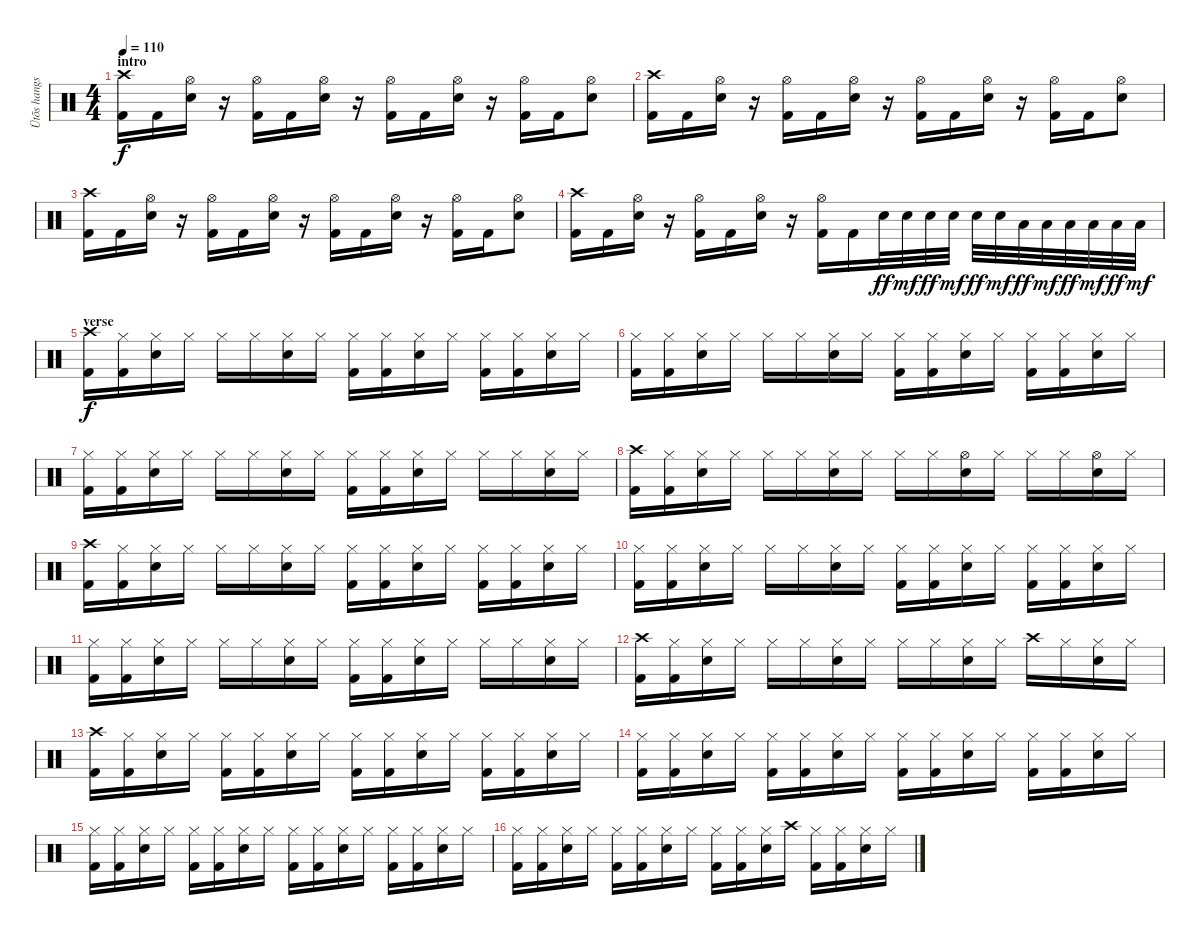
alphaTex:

\track ("Ütõs hangszer" "Ütõs hangs") {instrument percussion}
\staff {score}
\articulation defaults
\ts (4 4)
\section ("" "intro")
\tempo 110
\clef neutral
\ks c
("Crash high (hit)" "Kick (hit) 2").16{dy f} "Kick (hit) 2".16 ("Hi-Hat (open)" "Snare (hit) 2").16 r.16 ("Hi-Hat (open)" "Kick (hit) 2").16 "Kick (hit) 2".16 ("Hi-Hat (open)" "Snare (hit) 2").16 r.16 ("Hi-Hat (open)" "Kick (hit) 2").16 "Kick (hit) 2".16 ("Hi-Hat (open)" "Snare (hit) 2").16 r.16 ("Hi-Hat (open)" "Kick (hit) 2").16 "Kick (hit) 2".16 ("Hi-Hat (open)" "Snare (hit) 2").8 |
("Crash high (hit)" "Kick (hit) 2").16 "Kick (hit) 2".16 ("Hi-Hat (open)" "Snare (hit) 2").16 r.16 ("Hi-Hat (open)" "Kick (hit) 2").16 "Kick (hit) 2".16 ("Hi-Hat (open)" "Snare (hit) 2").16 r.16 ("Hi-Hat (open)" "Kick (hit) 2").16 "Kick (hit) 2".16 ("Hi-Hat (open)" "Snare (hit) 2").16 r.16 ("Hi-Hat (open)" "Kick (hit) 2").16 "Kick (hit) 2".16 ("Hi-Hat (open)" "Snare (hit) 2").8 |
("Crash high (hit)" "Kick (hit) 2").16 "Kick (hit) 2".16 ("Hi-Hat (open)" "Snare (hit) 2").16 r.16 ("Hi-Hat (open)" "Kick (hit) 2").16 "Kick (hit) 2".16 ("Hi-Hat (open)" "Snare (hit) 2").16 r.16 ("Hi-Hat (open)" "Kick (hit) 2").16 "Kick (hit) 2".16 ("Hi-Hat (open)" "Snare (hit) 2").16 r.16 ("Hi-Hat (open)" "Kick (hit) 2").16 "Kick (hit) 2".16 ("Hi-Hat (open)" "Snare (hit) 2").8 |
("Crash high (hit)" "Kick (hit) 2").16 "Kick (hit) 2".16 ("Hi-Hat (open)" "Snare (hit) 2").16 r.16 ("Hi-Hat (open)" "Kick (hit) 2").16 "Kick (hit) 2".16 ("Hi-Hat (open)" "Snare (hit) 2").16 r.16 ("Hi-Hat (open)" "Kick (hit) 2").16 "Kick (hit) 2".16 "Snare (hit) 2".32{dy ff} "Snare (hit) 2".32{dy mf} "Snare (hit) 2".32{dy ff} "Snare (hit) 2".32{dy mf} "Snare (hit) 2".32{dy ff} "Snare (hit) 2".32{dy mf} "Low Tom (hit)".32{dy ff} "Low Tom (hit)".32{dy mf} "Low Tom (hit)".32{dy ff} "Low Tom (hit)".32{dy mf} "Low Tom (hit)".32{dy ff} "Low Tom (hit)".32{dy mf} |
\section ("" "verse")
("Crash high (hit)" "Kick (hit) 2").16{dy f} ("Hi-Hat (closed)" "Kick (hit) 2").16 ("Hi-Hat (closed)" "Snare (hit) 2").16 "Hi-Hat (closed)".16 "Hi-Hat (closed)".16 "Hi-Hat (closed)".16 ("Hi-Hat (closed)" "Snare (hit) 2").16 "Hi-Hat (closed)".16 ("Hi-Hat (closed)" "Kick (hit) 2").16 ("Hi-Hat (closed)" "Kick (hit) 2").16 ("Hi-Hat (closed)" "Snare (hit) 2").16 "Hi-Hat (closed)".16 ("Hi-Hat (closed)" "Kick (hit) 2").16 ("Hi-Hat (closed)" "Kick (hit) 2").16 ("Hi-Hat (closed)" "Snare (hit) 2").16 "Hi-Hat (closed)".16 |
("Hi-Hat (closed)" "Kick (hit) 2").16 ("Hi-Hat (closed)" "Kick (hit) 2").16 ("Hi-Hat (closed)" "Snare (hit) 2").16 "Hi-Hat (closed)".16 "Hi-Hat (closed)".16 "Hi-Hat (closed)".16 ("Hi-Hat (closed)" "Snare (hit) 2").16 "Hi-Hat (closed)".16 ("Hi-Hat (closed)" "Kick (hit) 2").16 ("Hi-Hat (closed)" "Kick (hit) 2").16 ("Hi-Hat (closed)" "Snare (hit) 2").16 "Hi-Hat (closed)".16 ("Hi-Hat (closed)" "Kick (hit) 2").16 ("Hi-Hat (closed)" "Kick (hit) 2").16 ("Hi-Hat (closed)" "Snare (hit) 2").16 "Hi-Hat (closed)".16 |
("Hi-Hat (closed)" "Kick (hit) 2").16 ("Hi-Hat (closed)" "Kick (hit) 2").16 ("Hi-Hat (closed)" "Snare (hit) 2").16 "Hi-Hat (closed)".16 "Hi-Hat (closed)".16 "Hi-Hat (closed)".16 ("Hi-Hat (closed)" "Snare (hit) 2").16 "Hi-Hat (closed)".16 ("Hi-Hat (closed)" "Kick (hit) 2").16 ("Hi-Hat (closed)" "Kick (hit) 2").16 ("Hi-Hat (closed)" "Snare (hit) 2").16 "Hi-Hat (closed)".16 "Hi-Hat (closed)".16 "Hi-Hat (closed)".16 ("Hi-Hat (closed)" "Snare (hit) 2").16 "Hi-Hat (closed)".16 |
("Crash high (hit)" "Kick (hit) 2").16 ("Hi-Hat (closed)" "Kick (hit) 2").16 ("Hi-Hat (closed)" "Snare (hit) 2").16 "Hi-Hat (closed)".16 "Hi-Hat (closed)".16 "Hi-Hat (closed)".16 ("Hi-Hat (closed)" "Snare (hit) 2").16 "Hi-Hat (closed)".16 "Hi-Hat (closed)".16 "Hi-Hat (closed)".16 ("Hi-Hat (open)" "Snare (hit) 2").16 "Hi-Hat (closed)".16 "Hi-Hat (closed)".16 "Hi-Hat (closed)".16 ("Hi-Hat (open)" "Snare (hit) 2").16 "Hi-Hat (closed)".16 |
("Crash high (hit)" "Kick (hit) 2").16 ("Hi-Hat (closed)" "Kick (hit) 2").16 ("Hi-Hat (closed)" "Snare (hit) 2").16 "Hi-Hat (closed)".16 "Hi-Hat (closed)".16 "Hi-Hat (closed)".16 ("Hi-Hat (closed)" "Snare (hit) 2").16 "Hi-Hat (closed)".16 ("Hi-Hat (closed)" "Kick (hit) 2").16 ("Hi-Hat (closed)" "Kick (hit) 2").16 ("Hi-Hat (closed)" "Snare (hit) 2").16 "Hi-Hat (closed)".16 ("Hi-Hat (closed)" "Kick (hit) 2").16 ("Hi-Hat (closed)" "Kick (hit) 2").16 ("Hi-Hat (closed)" "Snare (hit) 2").16 "Hi-Hat (closed)".16 |
("Hi-Hat (closed)" "Kick (hit) 2").16 ("Hi-Hat (closed)" "Kick (hit) 2").16 ("Hi-Hat (closed)" "Snare (hit) 2").16 "Hi-Hat (closed)".16 "Hi-Hat (closed)".16 "Hi-Hat (closed)".16 ("Hi-Hat (closed)" "Snare (hit) 2").16 "Hi-Hat (closed)".16 ("Hi-Hat (closed)" "Kick (hit) 2").16 ("Hi-Hat (closed)" "Kick (hit) 2").16 ("Hi-Hat (closed)" "Snare (hit) 2").16 "Hi-Hat (closed)".16 ("Hi-Hat (closed)" "Kick (hit) 2").16 ("Hi-Hat (closed)" "Kick (hit) 2").16 ("Hi-Hat (closed)" "Snare (hit) 2").16 "Hi-Hat (closed)".16 |
("Hi-Hat (closed)" "Kick (hit) 2").16 ("Hi-Hat (closed)" "Kick (hit) 2").16 ("Hi-Hat (closed)" "Snare (hit) 2").16 "Hi-Hat (closed)".16 "Hi-Hat (closed)".16 "Hi-Hat (closed)".16 ("Hi-Hat (closed)" "Snare (hit) 2").16 "Hi-Hat (closed)".16 ("Hi-Hat (closed)" "Kick (hit) 2").16 ("Hi-Hat (closed)" "Kick (hit) 2").16 ("Hi-Hat (closed)" "Snare (hit) 2").16 "Hi-Hat (closed)".16 "Hi-Hat (closed)".16 "Hi-Hat (closed)".16 ("Hi-Hat (closed)" "Snare (hit) 2").16 "Hi-Hat (closed)".16 |
("Crash high (hit)" "Kick (hit) 2").16 ("Hi-Hat (closed)" "Kick (hit) 2").16 ("Hi-Hat (closed)" "Snare (hit) 2").16 "Hi-Hat (closed)".16 "Hi-Hat (closed)".16 "Hi-Hat (closed)".16 ("Hi-Hat (closed)" "Snare (hit) 2").16 "Hi-Hat (closed)".16 "Hi-Hat (closed)".16 "Hi-Hat (closed)".16 ("Hi-Hat (closed)" "Snare (hit) 2").16 "Hi-Hat (closed)".16 "Crash high (hit)".16 "Hi-Hat (closed)".16 ("Hi-Hat (closed)" "Snare (hit) 2").16 "Hi-Hat (closed)".16 |
("Crash high (hit)" "Kick (hit) 2").16 ("Hi-Hat (closed)" "Kick (hit) 2").16 ("Hi-Hat (closed)" "Snare (hit) 2").16 "Hi-Hat (closed)".16 ("Hi-Hat (closed)" "Kick (hit) 2").16 ("Hi-Hat (closed)" "Kick (hit) 2").16 ("Hi-Hat (closed)" "Snare (hit) 2").16 "Hi-Hat (closed)".16 ("Hi-Hat (closed)" "Kick (hit) 2").16 ("Hi-Hat (closed)" "Kick (hit) 2").16 ("Hi-Hat (closed)" "Snare (hit) 2").16 "Hi-Hat (closed)".16 ("Hi-Hat (closed)" "Kick (hit) 2").16 ("Hi-Hat (closed)" "Kick (hit) 2").16 ("Hi-Hat (closed)" "Snare (hit) 2").16 "Hi-Hat (closed)".16 |
("Hi-Hat (closed)" "Kick (hit) 2").16 ("Hi-Hat (closed)" "Kick (hit) 2").16 ("Hi-Hat (closed)" "Snare (hit) 2").16 "Hi-Hat (closed)".16 ("Hi-Hat (closed)" "Kick (hit) 2").16 ("Hi-Hat (closed)" "Kick (hit) 2").16 ("Hi-Hat (closed)" "Snare (hit) 2").16 "Hi-Hat (closed)".16 ("Hi-Hat (closed)" "Kick (hit) 2").16 ("Hi-Hat (closed)" "Kick (hit) 2").16 ("Hi-Hat (closed)" "Snare (hit) 2").16 "Hi-Hat (closed)".16 ("Hi-Hat (closed)" "Kick (hit) 2").16 ("Hi-Hat (closed)" "Kick (hit) 2").16 ("Hi-Hat (closed)" "Snare (hit) 2").16 "Hi-Hat (closed)".16 |
("Hi-Hat (closed)" "Kick (hit) 2").16 ("Hi-Hat (closed)" "Kick (hit) 2").16 ("Hi-Hat (closed)" "Snare (hit) 2").16 "Hi-Hat (closed)".16 ("Hi-Hat (closed)" "Kick (hit) 2").16 ("Hi-Hat (closed)" "Kick (hit) 2").16 ("Hi-Hat (closed)" "Snare (hit) 2").16 "Hi-Hat (closed)".16 ("Hi-Hat (closed)" "Kick (hit) 2").16 ("Hi-Hat (closed)" "Kick (hit) 2").16 ("Hi-Hat (closed)" "Snare (hit) 2").16 "Hi-Hat (closed)".16 ("Hi-Hat (closed)" "Kick (hit) 2").16 ("Hi-Hat (closed)" "Kick (hit) 2").16 ("Hi-Hat (closed)" "Snare (hit) 2").16 "Hi-Hat (closed)".16 |
("Hi-Hat (closed)" "Kick (hit) 2").16 ("Hi-Hat (closed)" "Kick (hit) 2").16 ("Hi-Hat (closed)" "Snare (hit) 2").16 "Hi-Hat (closed)".16 ("Hi-Hat (closed)" "Kick (hit) 2").16 ("Hi-Hat (closed)" "Kick (hit) 2").16 ("Hi-Hat (closed)" "Snare (hit) 2").16 "Hi-Hat (closed)".16 ("Hi-Hat (closed)" "Kick (hit) 2").16 ("Hi-Hat (closed)" "Kick (hit) 2").16 ("Hi-Hat (closed)" "Snare (hit) 2").16 "Crash high (hit)".16 ("Hi-Hat (closed)" "Kick (hit) 2").16 ("Hi-Hat (closed)" "Kick (hit) 2").16 ("Hi-Hat (closed)" "Snare (hit) 2").16 "Hi-Hat (closed)".16
